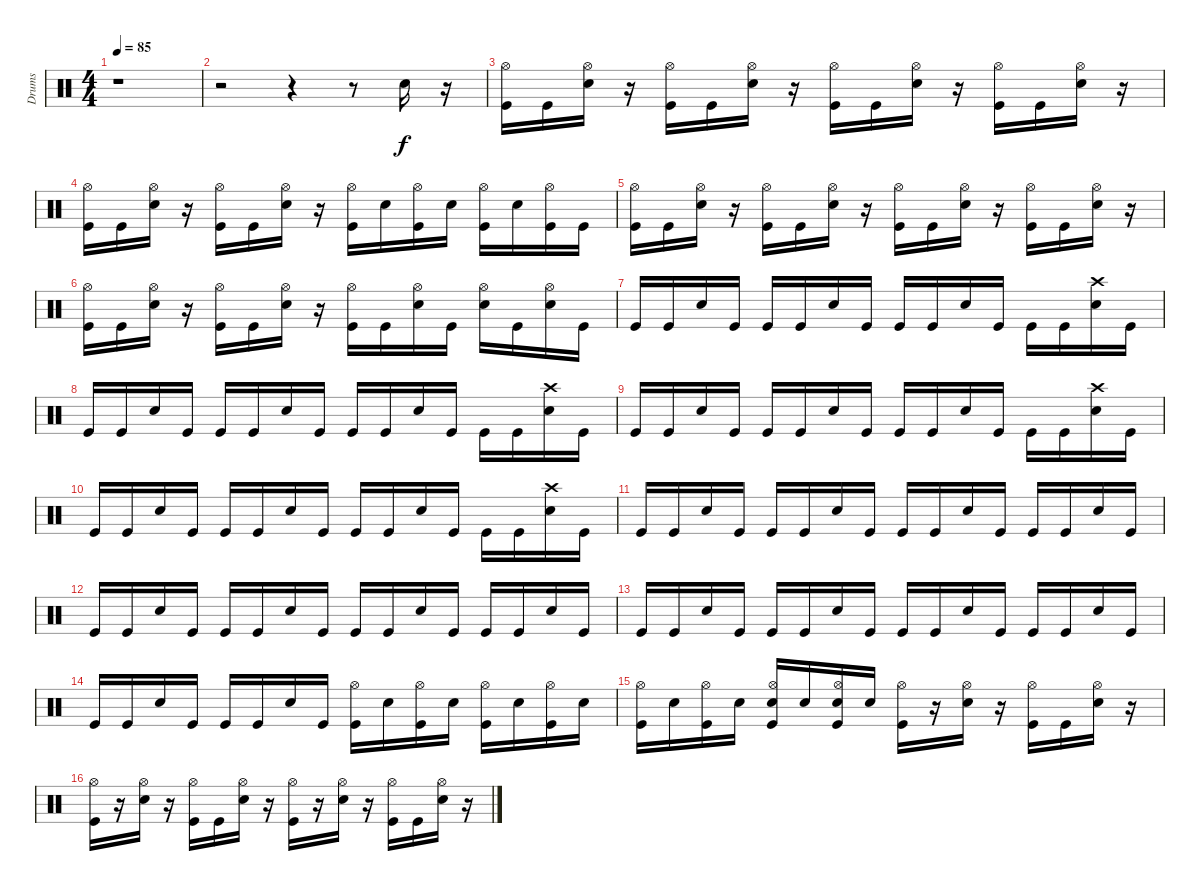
\track ("Drums" "Drums") {instrument percussion}
\staff {score}
\articulation defaults
\ts (4 4)
\tempo 85
\clef neutral
\ks c
r.1{dy f} |
r.2 r.4 r.8 "Snare (hit) 2".16 r.16 |
("Hi-Hat (open)" "Kick (hit)").16 "Kick (hit)".16 ("Hi-Hat (open)" "Snare (hit) 2").16 r.16 ("Hi-Hat (open)" "Kick (hit)").16 "Kick (hit)".16 ("Hi-Hat (open)" "Snare (hit) 2").16 r.16 ("Kick (hit)" "Hi-Hat (open)").16 "Kick (hit)".16 ("Hi-Hat (open)" "Snare (hit) 2").16 r.16 ("Kick (hit)" "Hi-Hat (open)").16 "Kick (hit)".16 ("Hi-Hat (open)" "Snare (hit) 2").16 r.16 |
("Kick (hit)" "Hi-Hat (open)").16 "Kick (hit)".16 ("Hi-Hat (open)" "Snare (hit) 2").16 r.16 ("Kick (hit)" "Hi-Hat (open)").16 "Kick (hit)".16 ("Hi-Hat (open)" "Snare (hit) 2").16 r.16 ("Kick (hit)" "Hi-Hat (open)").16 "Snare (hit) 2".16 ("Kick (hit)" "Hi-Hat (open)").16 "Snare (hit) 2".16 ("Kick (hit)" "Hi-Hat (open)").16 "Snare (hit) 2".16 ("Hi-Hat (open)" "Kick (hit)").16 "Kick (hit)".16 |
("Hi-Hat (open)" "Kick (hit)").16 "Kick (hit)".16 ("Hi-Hat (open)" "Snare (hit) 2").16 r.16 ("Hi-Hat (open)" "Kick (hit)").16 "Kick (hit)".16 ("Hi-Hat (open)" "Snare (hit) 2").16 r.16 ("Kick (hit)" "Hi-Hat (open)").16 "Kick (hit)".16 ("Hi-Hat (open)" "Snare (hit) 2").16 r.16 ("Kick (hit)" "Hi-Hat (open)").16 "Kick (hit)".16 ("Hi-Hat (open)" "Snare (hit) 2").16 r.16 |
("Hi-Hat (open)" "Kick (hit)").16 "Kick (hit)".16 ("Hi-Hat (open)" "Snare (hit) 2").16 r.16 ("Hi-Hat (open)" "Kick (hit)").16 "Kick (hit)".16 ("Hi-Hat (open)" "Snare (hit) 2").16 r.16 ("Kick (hit)" "Hi-Hat (open)").16 "Kick (hit)".16 ("Hi-Hat (open)" "Snare (hit) 2").16 "Kick (hit)".16 ("Hi-Hat (open)" "Snare (hit) 2").16 "Kick (hit)".16 ("Hi-Hat (open)" "Snare (hit) 2").16 "Kick (hit)".16 |
"Kick (hit)".16 "Kick (hit)".16 "Snare (hit) 2".16 "Kick (hit)".16 "Kick (hit)".16 "Kick (hit)".16 "Snare (hit) 2".16 "Kick (hit)".16 "Kick (hit)".16 "Kick (hit)".16 "Snare (hit) 2".16 "Kick (hit)".16 "Kick (hit)".16 "Kick (hit)".16 ("Crash high (hit)" "Snare (hit) 2").16 "Kick (hit)".16 |
"Kick (hit)".16 "Kick (hit)".16 "Snare (hit) 2".16 "Kick (hit)".16 "Kick (hit)".16 "Kick (hit)".16 "Snare (hit) 2".16 "Kick (hit)".16 "Kick (hit)".16 "Kick (hit)".16 "Snare (hit) 2".16 "Kick (hit)".16 "Kick (hit)".16 "Kick (hit)".16 ("Crash high (hit)" "Snare (hit) 2").16 "Kick (hit)".16 |
"Kick (hit)".16 "Kick (hit)".16 "Snare (hit) 2".16 "Kick (hit)".16 "Kick (hit)".16 "Kick (hit)".16 "Snare (hit) 2".16 "Kick (hit)".16 "Kick (hit)".16 "Kick (hit)".16 "Snare (hit) 2".16 "Kick (hit)".16 "Kick (hit)".16 "Kick (hit)".16 ("Crash high (hit)" "Snare (hit) 2").16 "Kick (hit)".16 |
"Kick (hit)".16 "Kick (hit)".16 "Snare (hit) 2".16 "Kick (hit)".16 "Kick (hit)".16 "Kick (hit)".16 "Snare (hit) 2".16 "Kick (hit)".16 "Kick (hit)".16 "Kick (hit)".16 "Snare (hit) 2".16 "Kick (hit)".16 "Kick (hit)".16 "Kick (hit)".16 ("Crash high (hit)" "Snare (hit) 2").16 "Kick (hit)".16 |
"Kick (hit)".16 "Kick (hit)".16 "Snare (hit) 2".16 "Kick (hit)".16 "Kick (hit)".16 "Kick (hit)".16 "Snare (hit) 2".16 "Kick (hit)".16 "Kick (hit)".16 "Kick (hit)".16 "Snare (hit) 2".16 "Kick (hit)".16 "Kick (hit)".16 "Kick (hit)".16 "Snare (hit) 2".16 "Kick (hit)".16 |
"Kick (hit)".16 "Kick (hit)".16 "Snare (hit) 2".16 "Kick (hit)".16 "Kick (hit)".16 "Kick (hit)".16 "Snare (hit) 2".16 "Kick (hit)".16 "Kick (hit)".16 "Kick (hit)".16 "Snare (hit) 2".16 "Kick (hit)".16 "Kick (hit)".16 "Kick (hit)".16 "Snare (hit) 2".16 "Kick (hit)".16 |
"Kick (hit)".16 "Kick (hit)".16 "Snare (hit) 2".16 "Kick (hit)".16 "Kick (hit)".16 "Kick (hit)".16 "Snare (hit) 2".16 "Kick (hit)".16 "Kick (hit)".16 "Kick (hit)".16 "Snare (hit) 2".16 "Kick (hit)".16 "Kick (hit)".16 "Kick (hit)".16 "Snare (hit) 2".16 "Kick (hit)".16 |
"Kick (hit)".16 "Kick (hit)".16 "Snare (hit) 2".16 "Kick (hit)".16 "Kick (hit)".16 "Kick (hit)".16 "Snare (hit) 2".16 "Kick (hit)".16 ("Kick (hit)" "Hi-Hat (open)").16 "Snare (hit) 2".16 ("Kick (hit)" "Hi-Hat (open)").16 "Snare (hit) 2".16 ("Kick (hit)" "Hi-Hat (open)").16 "Snare (hit) 2".16 ("Kick (hit)" "Hi-Hat (open)").16 "Snare (hit) 2".16 |
("Kick (hit)" "Hi-Hat (open)").16 "Snare (hit) 2".16 ("Kick (hit)" "Hi-Hat (open)").16 "Snare (hit) 2".16 ("Kick (hit)" "Snare (hit) 2" "Hi-Hat (open)").16 "Snare (hit) 2".16 ("Kick (hit)" "Hi-Hat (open)" "Snare (hit) 2").16 "Snare (hit) 2".16 ("Kick (hit)" "Hi-Hat (open)").16 r.16 ("Snare (hit) 2" "Hi-Hat (open)").16 r.16 ("Kick (hit)" "Hi-Hat (open)").16 "Kick (hit)".16 ("Snare (hit) 2" "Hi-Hat (open)").16 r.16 |
("Kick (hit)" "Hi-Hat (open)").16 r.16 ("Snare (hit) 2" "Hi-Hat (open)").16 r.16 ("Kick (hit)" "Hi-Hat (open)").16 "Kick (hit)".16 ("Snare (hit) 2" "Hi-Hat (open)").16 r.16 ("Kick (hit)" "Hi-Hat (open)").16 r.16 ("Snare (hit) 2" "Hi-Hat (open)").16 r.16 ("Kick (hit)" "Hi-Hat (open)").16 "Kick (hit)".16 ("Snare (hit) 2" "Hi-Hat (open)").16 r.16
